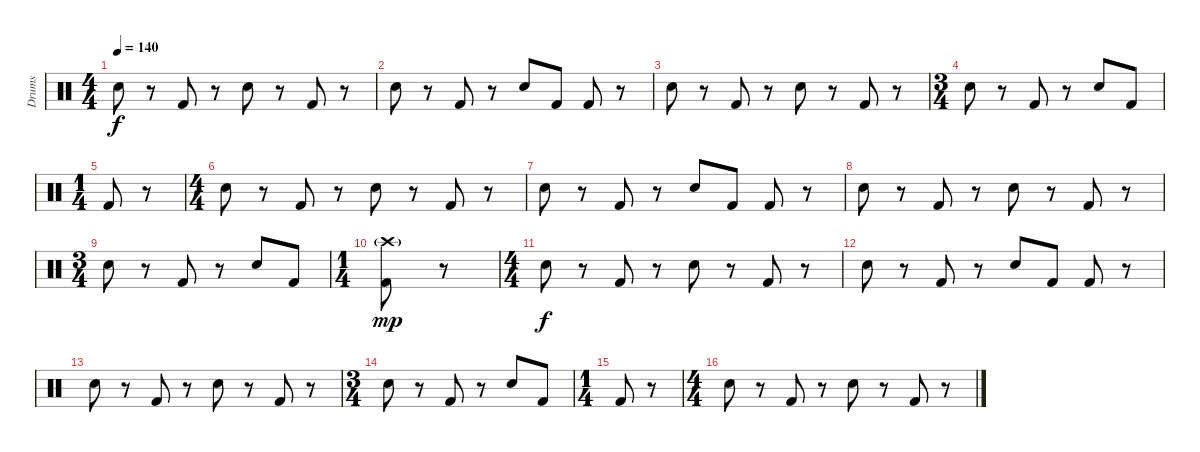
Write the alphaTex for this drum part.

\track ("Drums" "Drums") {instrument percussion}
\staff {score}
\articulation defaults
\ts (4 4)
\tempo 140
\clef neutral
\ks c "Electric Snare (hit)".8{dy f}
r.8 "Kick (hit) 2".8 r.8 "Electric Snare (hit)".8 r.8 "Kick (hit) 2".8 r.8 |
"Electric Snare (hit)".8 r.8 "Kick (hit) 2".8 r.8 "Electric Snare (hit)".8 "Kick (hit) 2".8 "Kick (hit) 2".8 r.8 |
"Electric Snare (hit)".8 r.8 "Kick (hit) 2".8 r.8 "Electric Snare (hit)".8 r.8 "Kick (hit) 2".8 r.8 |
\ts (3 4)
"Electric Snare (hit)".8 r.8 "Kick (hit) 2".8 r.8 "Electric Snare (hit)".8 "Kick (hit) 2".8 |
\ts (1 4)
"Kick (hit) 2".8 r.8 |
\ts (4 4)
"Electric Snare (hit)".8 r.8 "Kick (hit) 2".8 r.8 "Electric Snare (hit)".8 r.8 "Kick (hit) 2".8 r.8 |
"Electric Snare (hit)".8 r.8 "Kick (hit) 2".8 r.8 "Electric Snare (hit)".8 "Kick (hit) 2".8 "Kick (hit) 2".8 r.8 |
"Electric Snare (hit)".8 r.8 "Kick (hit) 2".8 r.8 "Electric Snare (hit)".8 r.8 "Kick (hit) 2".8 r.8 |
\ts (3 4)
"Electric Snare (hit)".8 r.8 "Kick (hit) 2".8 r.8 "Electric Snare (hit)".8 "Kick (hit) 2".8 |
\ts (1 4)
("Crash high (hit)"{g} "Kick (hit) 2").8{dy mp} r.8 |
\ts (4 4)
"Electric Snare (hit)".8{dy f} r.8 "Kick (hit) 2".8 r.8 "Electric Snare (hit)".8 r.8 "Kick (hit) 2".8 r.8 |
"Electric Snare (hit)".8 r.8 "Kick (hit) 2".8 r.8 "Electric Snare (hit)".8 "Kick (hit) 2".8 "Kick (hit) 2".8 r.8 |
"Electric Snare (hit)".8 r.8 "Kick (hit) 2".8 r.8 "Electric Snare (hit)".8 r.8 "Kick (hit) 2".8 r.8 |
\ts (3 4)
"Electric Snare (hit)".8 r.8 "Kick (hit) 2".8 r.8 "Electric Snare (hit)".8 "Kick (hit) 2".8 |
\ts (1 4)
"Kick (hit) 2".8 r.8 |
\ts (4 4)
"Electric Snare (hit)".8 r.8 "Kick (hit) 2".8 r.8 "Electric Snare (hit)".8 r.8 "Kick (hit) 2".8 r.8
